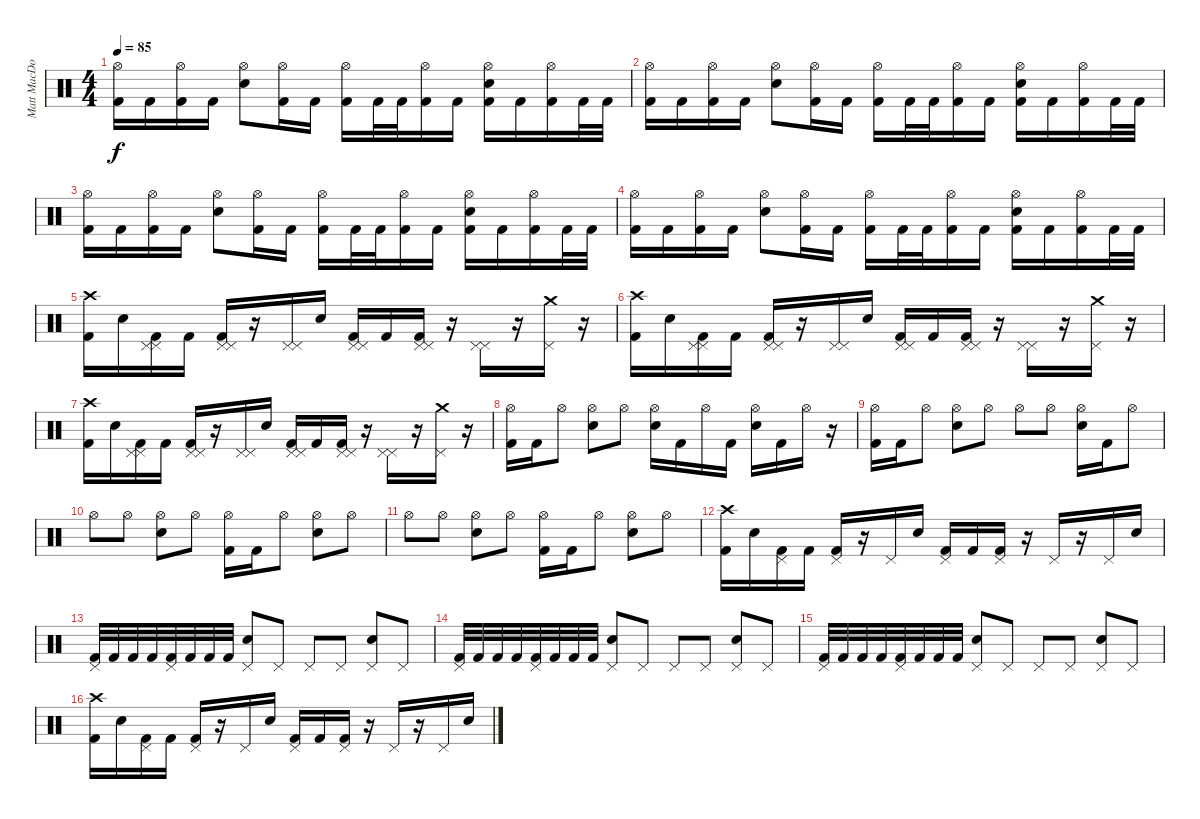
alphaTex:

\track ("Matt MacDonough" "Matt MacDo") {instrument percussion}
\staff {score}
\articulation defaults
\ts (4 4)
\tempo 85
\clef neutral
\ks c
("Hi-Hat (open)" "Kick (hit) 2").16{dy f} "Kick (hit) 2".16 ("Hi-Hat (open)" "Kick (hit) 2").16 "Kick (hit) 2".16 ("Hi-Hat (open)" "Electric Snare (hit)").8 ("Hi-Hat (open)" "Kick (hit) 2").16 "Kick (hit) 2".16 ("Hi-Hat (open)" "Kick (hit) 2").16 "Kick (hit) 2".32 "Kick (hit) 2".32 ("Hi-Hat (open)" "Kick (hit) 2").16 "Kick (hit) 2".16 ("Hi-Hat (open)" "Electric Snare (hit)" "Kick (hit) 2").16 "Kick (hit) 2".16 ("Hi-Hat (open)" "Kick (hit) 2").16 "Kick (hit) 2".32 "Kick (hit) 2".32 |
("Hi-Hat (open)" "Kick (hit) 2").16 "Kick (hit) 2".16 ("Hi-Hat (open)" "Kick (hit) 2").16 "Kick (hit) 2".16 ("Hi-Hat (open)" "Electric Snare (hit)").8 ("Hi-Hat (open)" "Kick (hit) 2").16 "Kick (hit) 2".16 ("Hi-Hat (open)" "Kick (hit) 2").16 "Kick (hit) 2".32 "Kick (hit) 2".32 ("Hi-Hat (open)" "Kick (hit) 2").16 "Kick (hit) 2".16 ("Hi-Hat (open)" "Electric Snare (hit)" "Kick (hit) 2").16 "Kick (hit) 2".16 ("Hi-Hat (open)" "Kick (hit) 2").16 "Kick (hit) 2".32 "Kick (hit) 2".32 |
("Hi-Hat (open)" "Kick (hit) 2").16 "Kick (hit) 2".16 ("Hi-Hat (open)" "Kick (hit) 2").16 "Kick (hit) 2".16 ("Hi-Hat (open)" "Electric Snare (hit)").8 ("Hi-Hat (open)" "Kick (hit) 2").16 "Kick (hit) 2".16 ("Hi-Hat (open)" "Kick (hit) 2").16 "Kick (hit) 2".32 "Kick (hit) 2".32 ("Hi-Hat (open)" "Kick (hit) 2").16 "Kick (hit) 2".16 ("Hi-Hat (open)" "Electric Snare (hit)" "Kick (hit) 2").16 "Kick (hit) 2".16 ("Hi-Hat (open)" "Kick (hit) 2").16 "Kick (hit) 2".32 "Kick (hit) 2".32 |
("Hi-Hat (open)" "Kick (hit) 2").16 "Kick (hit) 2".16 ("Hi-Hat (open)" "Kick (hit) 2").16 "Kick (hit) 2".16 ("Hi-Hat (open)" "Electric Snare (hit)").8 ("Hi-Hat (open)" "Kick (hit) 2").16 "Kick (hit) 2".16 ("Hi-Hat (open)" "Kick (hit) 2").16 "Kick (hit) 2".32 "Kick (hit) 2".32 ("Hi-Hat (open)" "Kick (hit) 2").16 "Kick (hit) 2".16 ("Hi-Hat (open)" "Electric Snare (hit)" "Kick (hit) 2").16 "Kick (hit) 2".16 ("Hi-Hat (open)" "Kick (hit) 2").16 "Kick (hit) 2".32 "Kick (hit) 2".32 |
("Crash high (hit)" "Kick (hit) 2").16 "Electric Snare (hit)".16 ("Pedal Hi-Hat (hit)" "Pedal Hi-Hat (hit)" "Kick (hit) 2").16 "Kick (hit) 2".16 ("Pedal Hi-Hat (hit)" "Pedal Hi-Hat (hit)" "Kick (hit) 2").16 r.16 ("Pedal Hi-Hat (hit)" "Pedal Hi-Hat (hit)").16 "Electric Snare (hit)".16 ("Pedal Hi-Hat (hit)" "Pedal Hi-Hat (hit)" "Kick (hit) 2").16 "Kick (hit) 2".16 ("Pedal Hi-Hat (hit)" "Pedal Hi-Hat (hit)" "Kick (hit) 2").16 r.16 ("Pedal Hi-Hat (hit)" "Pedal Hi-Hat (hit)").16 r.16 ("Pedal Hi-Hat (hit)" "Crash medium (hit)").16 r.16 |
("Crash high (hit)" "Kick (hit) 2").16 "Electric Snare (hit)".16 ("Pedal Hi-Hat (hit)" "Pedal Hi-Hat (hit)" "Kick (hit) 2").16 "Kick (hit) 2".16 ("Pedal Hi-Hat (hit)" "Pedal Hi-Hat (hit)" "Kick (hit) 2").16 r.16 ("Pedal Hi-Hat (hit)" "Pedal Hi-Hat (hit)").16 "Electric Snare (hit)".16 ("Pedal Hi-Hat (hit)" "Pedal Hi-Hat (hit)" "Kick (hit) 2").16 "Kick (hit) 2".16 ("Pedal Hi-Hat (hit)" "Pedal Hi-Hat (hit)" "Kick (hit) 2").16 r.16 ("Pedal Hi-Hat (hit)" "Pedal Hi-Hat (hit)").16 r.16 ("Pedal Hi-Hat (hit)" "Crash medium (hit)").16 r.16 |
("Crash high (hit)" "Kick (hit) 2").16 "Electric Snare (hit)".16 ("Pedal Hi-Hat (hit)" "Pedal Hi-Hat (hit)" "Kick (hit) 2").16 "Kick (hit) 2".16 ("Pedal Hi-Hat (hit)" "Pedal Hi-Hat (hit)" "Kick (hit) 2").16 r.16 ("Pedal Hi-Hat (hit)" "Pedal Hi-Hat (hit)").16 "Electric Snare (hit)".16 ("Pedal Hi-Hat (hit)" "Pedal Hi-Hat (hit)" "Kick (hit) 2").16 "Kick (hit) 2".16 ("Pedal Hi-Hat (hit)" "Pedal Hi-Hat (hit)" "Kick (hit) 2").16 r.16 ("Pedal Hi-Hat (hit)" "Pedal Hi-Hat (hit)").16 r.16 ("Pedal Hi-Hat (hit)" "Crash medium (hit)").16 r.16 |
("Hi-Hat (open)" "Kick (hit) 2").16 "Kick (hit) 2".16 "Hi-Hat (open)".8 ("Hi-Hat (open)" "Electric Snare (hit)").8 "Hi-Hat (open)".8 ("Hi-Hat (open)" "Electric Snare (hit)").16 "Kick (hit) 2".16 "Hi-Hat (open)".16 "Kick (hit) 2".16 ("Hi-Hat (open)" "Electric Snare (hit)").16 "Kick (hit) 2".16 "Hi-Hat (open)".16 r.16 |
("Hi-Hat (open)" "Kick (hit) 2").16 "Kick (hit) 2".16 "Hi-Hat (open)".8 ("Hi-Hat (open)" "Electric Snare (hit)").8 "Hi-Hat (open)".8 "Hi-Hat (open)".8 "Hi-Hat (open)".8 ("Hi-Hat (open)" "Electric Snare (hit)").16 "Kick (hit) 2".16 "Hi-Hat (open)".8 |
"Hi-Hat (open)".8 "Hi-Hat (open)".8 ("Hi-Hat (open)" "Electric Snare (hit)").8 "Hi-Hat (open)".8 ("Hi-Hat (open)" "Kick (hit) 2").16 "Kick (hit) 2".16 "Hi-Hat (open)".8 ("Hi-Hat (open)" "Electric Snare (hit)").8 "Hi-Hat (open)".8 |
"Hi-Hat (open)".8 "Hi-Hat (open)".8 ("Hi-Hat (open)" "Electric Snare (hit)").8 "Hi-Hat (open)".8 ("Hi-Hat (open)" "Kick (hit) 2").16 "Kick (hit) 2".16 "Hi-Hat (open)".8 ("Hi-Hat (open)" "Electric Snare (hit)").8 "Hi-Hat (open)".8 |
("Crash high (hit)" "Kick (hit) 2").16 "Electric Snare (hit)".16 ("Pedal Hi-Hat (hit)" "Kick (hit) 2").16 "Kick (hit) 2".16 ("Pedal Hi-Hat (hit)" "Kick (hit) 2").16 r.16 "Pedal Hi-Hat (hit)".16 "Electric Snare (hit)".16 ("Pedal Hi-Hat (hit)" "Kick (hit) 2").16 "Kick (hit) 2".16 ("Pedal Hi-Hat (hit)" "Kick (hit) 2").16 r.16 "Pedal Hi-Hat (hit)".16 r.16 "Pedal Hi-Hat (hit)".16 "Electric Snare (hit)".16 |
("Pedal Hi-Hat (hit)" "Kick (hit) 2").32 "Kick (hit) 2".32 "Kick (hit) 2".32 "Kick (hit) 2".32 ("Pedal Hi-Hat (hit)" "Kick (hit) 2").32 "Kick (hit) 2".32 "Kick (hit) 2".32 "Kick (hit) 2".32 ("Pedal Hi-Hat (hit)" "Electric Snare (hit)").8 "Pedal Hi-Hat (hit)".8 "Pedal Hi-Hat (hit)".8 "Pedal Hi-Hat (hit)".8 ("Pedal Hi-Hat (hit)" "Electric Snare (hit)").8 "Pedal Hi-Hat (hit)".8 |
("Pedal Hi-Hat (hit)" "Kick (hit) 2").32 "Kick (hit) 2".32 "Kick (hit) 2".32 "Kick (hit) 2".32 ("Pedal Hi-Hat (hit)" "Kick (hit) 2").32 "Kick (hit) 2".32 "Kick (hit) 2".32 "Kick (hit) 2".32 ("Pedal Hi-Hat (hit)" "Electric Snare (hit)").8 "Pedal Hi-Hat (hit)".8 "Pedal Hi-Hat (hit)".8 "Pedal Hi-Hat (hit)".8 ("Pedal Hi-Hat (hit)" "Electric Snare (hit)").8 "Pedal Hi-Hat (hit)".8 |
("Pedal Hi-Hat (hit)" "Kick (hit) 2").32 "Kick (hit) 2".32 "Kick (hit) 2".32 "Kick (hit) 2".32 ("Pedal Hi-Hat (hit)" "Kick (hit) 2").32 "Kick (hit) 2".32 "Kick (hit) 2".32 "Kick (hit) 2".32 ("Pedal Hi-Hat (hit)" "Electric Snare (hit)").8 "Pedal Hi-Hat (hit)".8 "Pedal Hi-Hat (hit)".8 "Pedal Hi-Hat (hit)".8 ("Pedal Hi-Hat (hit)" "Electric Snare (hit)").8 "Pedal Hi-Hat (hit)".8 |
("Crash high (hit)" "Kick (hit) 2").16 "Electric Snare (hit)".16 ("Pedal Hi-Hat (hit)" "Kick (hit) 2").16 "Kick (hit) 2".16 ("Pedal Hi-Hat (hit)" "Kick (hit) 2").16 r.16 "Pedal Hi-Hat (hit)".16 "Electric Snare (hit)".16 ("Pedal Hi-Hat (hit)" "Kick (hit) 2").16 "Kick (hit) 2".16 ("Pedal Hi-Hat (hit)" "Kick (hit) 2").16 r.16 "Pedal Hi-Hat (hit)".16 r.16 "Pedal Hi-Hat (hit)".16 "Electric Snare (hit)".16
